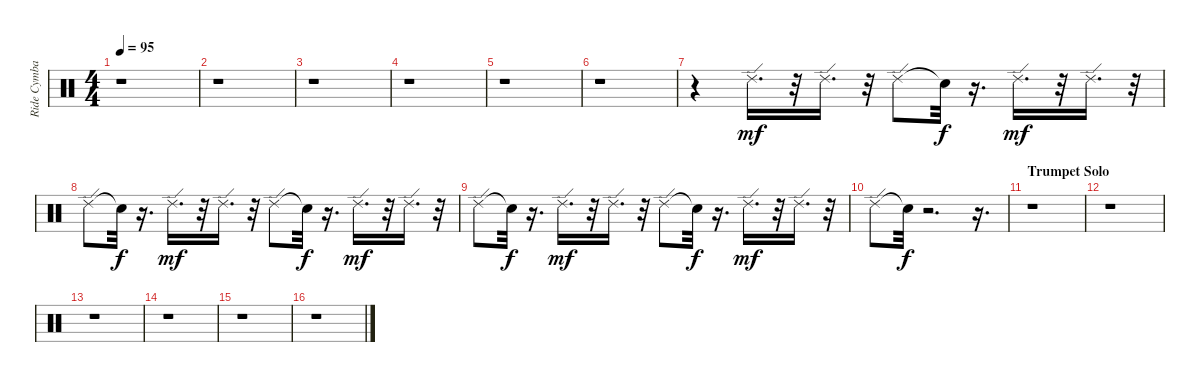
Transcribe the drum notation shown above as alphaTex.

\track ("Ride Cymbal" "Ride Cymba") {instrument percussion}
\staff {score}
\articulation defaults
\ts (4 4)
\tempo 95
\clef neutral
\ks c
r.1{dy mf} |
r.1 |
r.1 |
r.1 |
r.1 |
r.1 |
r.4 "Ride (edge) 2".16{d} r.32 "Ride (edge) 2".16{d} r.32 "Ride (edge) 2".8 "Snare (hit)"{t}.32{dy f} r.16{d} "Ride (edge) 2".16{d dy mf} r.32 "Ride (edge) 2".16{d} r.32 |
"Ride (edge) 2".8 "Snare (hit)"{t}.32{dy f} r.16{d} "Ride (edge) 2".16{d dy mf} r.32 "Ride (edge) 2".16{d} r.32 "Ride (edge) 2".8 "Snare (hit)"{t}.32{dy f} r.16{d} "Ride (edge) 2".16{d dy mf} r.32 "Ride (edge) 2".16{d} r.32 |
"Ride (edge) 2".8 "Snare (hit)"{t}.32{dy f} r.16{d} "Ride (edge) 2".16{d dy mf} r.32 "Ride (edge) 2".16{d} r.32 "Ride (edge) 2".8 "Snare (hit)"{t}.32{dy f} r.16{d} "Ride (edge) 2".16{d dy mf} r.32 "Ride (edge) 2".16{d} r.32 |
"Ride (edge) 2".8 "Snare (hit)"{t}.32{dy f} r.2{d} r.16{d} |
\section ("" "Trumpet Solo")
r.1 |
r.1 |
r.1 |
r.1 |
r.1 |
r.1
